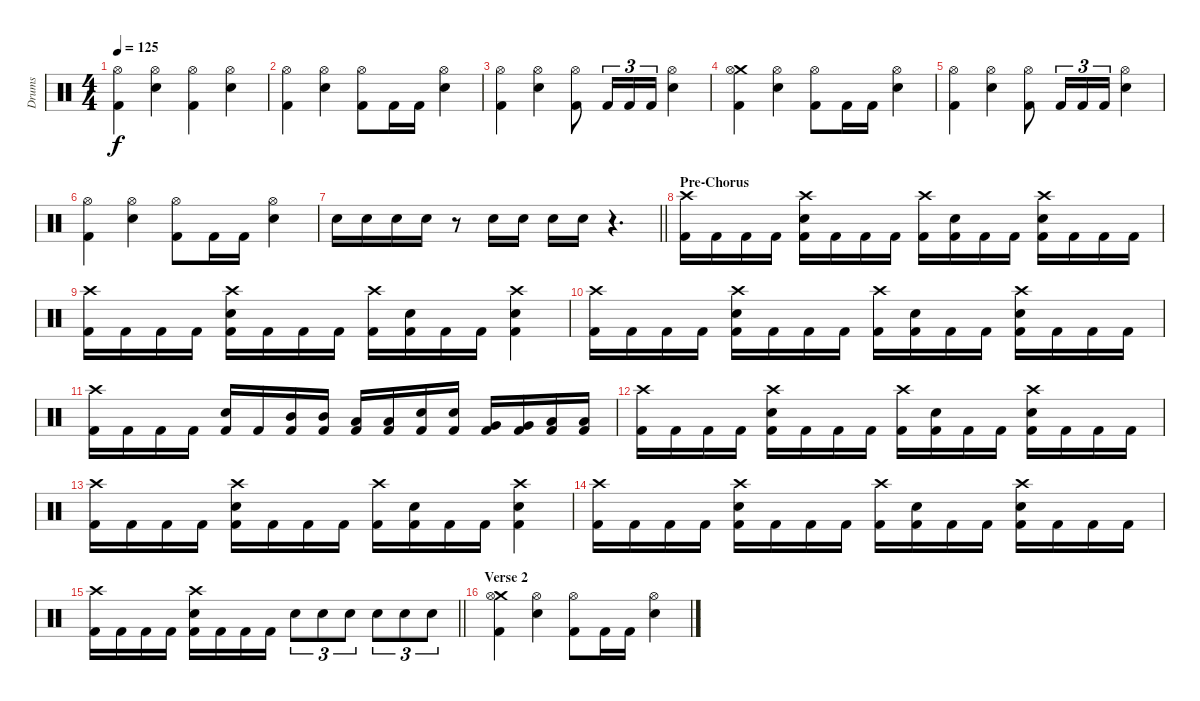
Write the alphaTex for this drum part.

\track ("Drums" "Drums") {instrument percussion}
\staff {score}
\articulation defaults
\ts (4 4)
\tempo 125
\clef neutral
\ks c
("Hi-Hat (open)" "Kick (hit) 2").4{dy f} ("Hi-Hat (open)" "Snare (hit) 2").4 ("Hi-Hat (open)" "Kick (hit) 2").4 ("Hi-Hat (open)" "Snare (hit) 2").4 |
("Hi-Hat (open)" "Kick (hit) 2").4 ("Hi-Hat (open)" "Snare (hit) 2").4 ("Hi-Hat (open)" "Kick (hit) 2").8 "Kick (hit) 2".16 "Kick (hit) 2".16 ("Hi-Hat (open)" "Snare (hit) 2").4 |
("Hi-Hat (open)" "Kick (hit) 2").4 ("Hi-Hat (open)" "Snare (hit) 2").4 ("Hi-Hat (open)" "Kick (hit) 2").8 "Kick (hit) 2".16{tu (3 2)} "Kick (hit) 2".16{tu (3 2)} "Kick (hit) 2".16{tu (3 2)} ("Hi-Hat (open)" "Snare (hit) 2").4 |
("Crash medium (hit)" "Hi-Hat (open)" "Kick (hit) 2").4 ("Hi-Hat (open)" "Snare (hit) 2").4 ("Hi-Hat (open)" "Kick (hit) 2").8 "Kick (hit) 2".16 "Kick (hit) 2".16 ("Hi-Hat (open)" "Snare (hit) 2").4 |
("Hi-Hat (open)" "Kick (hit) 2").4 ("Hi-Hat (open)" "Snare (hit) 2").4 ("Hi-Hat (open)" "Kick (hit) 2").8 "Kick (hit) 2".16{tu (3 2)} "Kick (hit) 2".16{tu (3 2)} "Kick (hit) 2".16{tu (3 2)} ("Hi-Hat (open)" "Snare (hit) 2").4 |
("Hi-Hat (open)" "Kick (hit) 2").4 ("Hi-Hat (open)" "Snare (hit) 2").4 ("Hi-Hat (open)" "Kick (hit) 2").8 "Kick (hit) 2".16 "Kick (hit) 2".16 ("Hi-Hat (open)" "Snare (hit) 2").4 |
\barLineRight lightlight "Snare (hit) 2".16 "Snare (hit) 2".16 "Snare (hit) 2".16 "Snare (hit) 2".16
r.8 "Snare (hit) 2".16 "Snare (hit) 2".16 "Snare (hit) 2".16 "Snare (hit) 2".16 r.4{d} |
\section ("" "Pre-Chorus")
("Crash high (hit)" "Kick (hit) 2").16 "Kick (hit) 2".16 "Kick (hit) 2".16 "Kick (hit) 2".16 ("Crash high (hit)" "Snare (hit) 2" "Kick (hit) 2").16 "Kick (hit) 2".16 "Kick (hit) 2".16 "Kick (hit) 2".16 ("Crash high (hit)" "Kick (hit) 2").16 ("Snare (hit) 2" "Kick (hit) 2").16 "Kick (hit) 2".16 "Kick (hit) 2".16 ("Crash high (hit)" "Snare (hit) 2" "Kick (hit) 2").16 "Kick (hit) 2".16 "Kick (hit) 2".16 "Kick (hit) 2".16 |
("Crash high (hit)" "Kick (hit) 2").16 "Kick (hit) 2".16 "Kick (hit) 2".16 "Kick (hit) 2".16 ("Crash high (hit)" "Snare (hit) 2" "Kick (hit) 2").16 "Kick (hit) 2".16 "Kick (hit) 2".16 "Kick (hit) 2".16 ("Crash high (hit)" "Kick (hit) 2").16 ("Snare (hit) 2" "Kick (hit) 2").16 "Kick (hit) 2".16 "Kick (hit) 2".16 ("Crash high (hit)" "Snare (hit) 2" "Kick (hit) 2").4 |
("Crash high (hit)" "Kick (hit) 2").16 "Kick (hit) 2".16 "Kick (hit) 2".16 "Kick (hit) 2".16 ("Crash high (hit)" "Snare (hit) 2" "Kick (hit) 2").16 "Kick (hit) 2".16 "Kick (hit) 2".16 "Kick (hit) 2".16 ("Crash high (hit)" "Kick (hit) 2").16 ("Snare (hit) 2" "Kick (hit) 2").16 "Kick (hit) 2".16 "Kick (hit) 2".16 ("Crash high (hit)" "Snare (hit) 2" "Kick (hit) 2").16 "Kick (hit) 2".16 "Kick (hit) 2".16 "Kick (hit) 2".16 |
("Crash high (hit)" "Kick (hit) 2").16 "Kick (hit) 2".16 "Kick (hit) 2".16 "Kick (hit) 2".16 ("Snare (hit) 2" "Kick (hit) 2").16 "Kick (hit) 2".16 ("Mid Tom (hit)" "Kick (hit) 2").16 ("Mid Tom (hit)" "Kick (hit) 2").16 ("Low Tom (hit)" "Kick (hit) 2").16 ("Low Tom (hit)" "Kick (hit) 2").16 ("Snare (hit) 2" "Kick (hit) 2").16 ("Snare (hit) 2" "Kick (hit) 2").16 ("Very Low Tom (hit)" "Kick (hit) 2").16 ("Very Low Tom (hit)" "Kick (hit) 2").16 ("Low Floor Tom (hit)" "Kick (hit) 2").16 ("Low Floor Tom (hit)" "Kick (hit) 2").16 |
("Crash high (hit)" "Kick (hit) 2").16 "Kick (hit) 2".16 "Kick (hit) 2".16 "Kick (hit) 2".16 ("Crash high (hit)" "Snare (hit) 2" "Kick (hit) 2").16 "Kick (hit) 2".16 "Kick (hit) 2".16 "Kick (hit) 2".16 ("Crash high (hit)" "Kick (hit) 2").16 ("Snare (hit) 2" "Kick (hit) 2").16 "Kick (hit) 2".16 "Kick (hit) 2".16 ("Crash high (hit)" "Snare (hit) 2" "Kick (hit) 2").16 "Kick (hit) 2".16 "Kick (hit) 2".16 "Kick (hit) 2".16 |
("Crash high (hit)" "Kick (hit) 2").16 "Kick (hit) 2".16 "Kick (hit) 2".16 "Kick (hit) 2".16 ("Crash high (hit)" "Snare (hit) 2" "Kick (hit) 2").16 "Kick (hit) 2".16 "Kick (hit) 2".16 "Kick (hit) 2".16 ("Crash high (hit)" "Kick (hit) 2").16 ("Snare (hit) 2" "Kick (hit) 2").16 "Kick (hit) 2".16 "Kick (hit) 2".16 ("Crash high (hit)" "Snare (hit) 2" "Kick (hit) 2").4 |
("Crash high (hit)" "Kick (hit) 2").16 "Kick (hit) 2".16 "Kick (hit) 2".16 "Kick (hit) 2".16 ("Crash high (hit)" "Snare (hit) 2" "Kick (hit) 2").16 "Kick (hit) 2".16 "Kick (hit) 2".16 "Kick (hit) 2".16 ("Crash high (hit)" "Kick (hit) 2").16 ("Snare (hit) 2" "Kick (hit) 2").16 "Kick (hit) 2".16 "Kick (hit) 2".16 ("Crash high (hit)" "Snare (hit) 2" "Kick (hit) 2").16 "Kick (hit) 2".16 "Kick (hit) 2".16 "Kick (hit) 2".16 |
\barLineRight lightlight
("Crash high (hit)" "Kick (hit) 2").16 "Kick (hit) 2".16 "Kick (hit) 2".16 "Kick (hit) 2".16 ("Crash high (hit)" "Snare (hit) 2" "Kick (hit) 2").16 "Kick (hit) 2".16 "Kick (hit) 2".16 "Kick (hit) 2".16 "Snare (hit) 2".8{tu (3 2)} "Snare (hit) 2".8{tu (3 2)} "Snare (hit) 2".8{tu (3 2)} "Snare (hit) 2".8{tu (3 2)} "Snare (hit) 2".8{tu (3 2)} "Snare (hit) 2".8{tu (3 2)} |
\section ("" "Verse 2")
("Crash medium (hit)" "Hi-Hat (open)" "Kick (hit) 2").4 ("Hi-Hat (open)" "Snare (hit) 2").4 ("Hi-Hat (open)" "Kick (hit) 2").8 "Kick (hit) 2".16 "Kick (hit) 2".16 ("Hi-Hat (open)" "Snare (hit) 2").4
